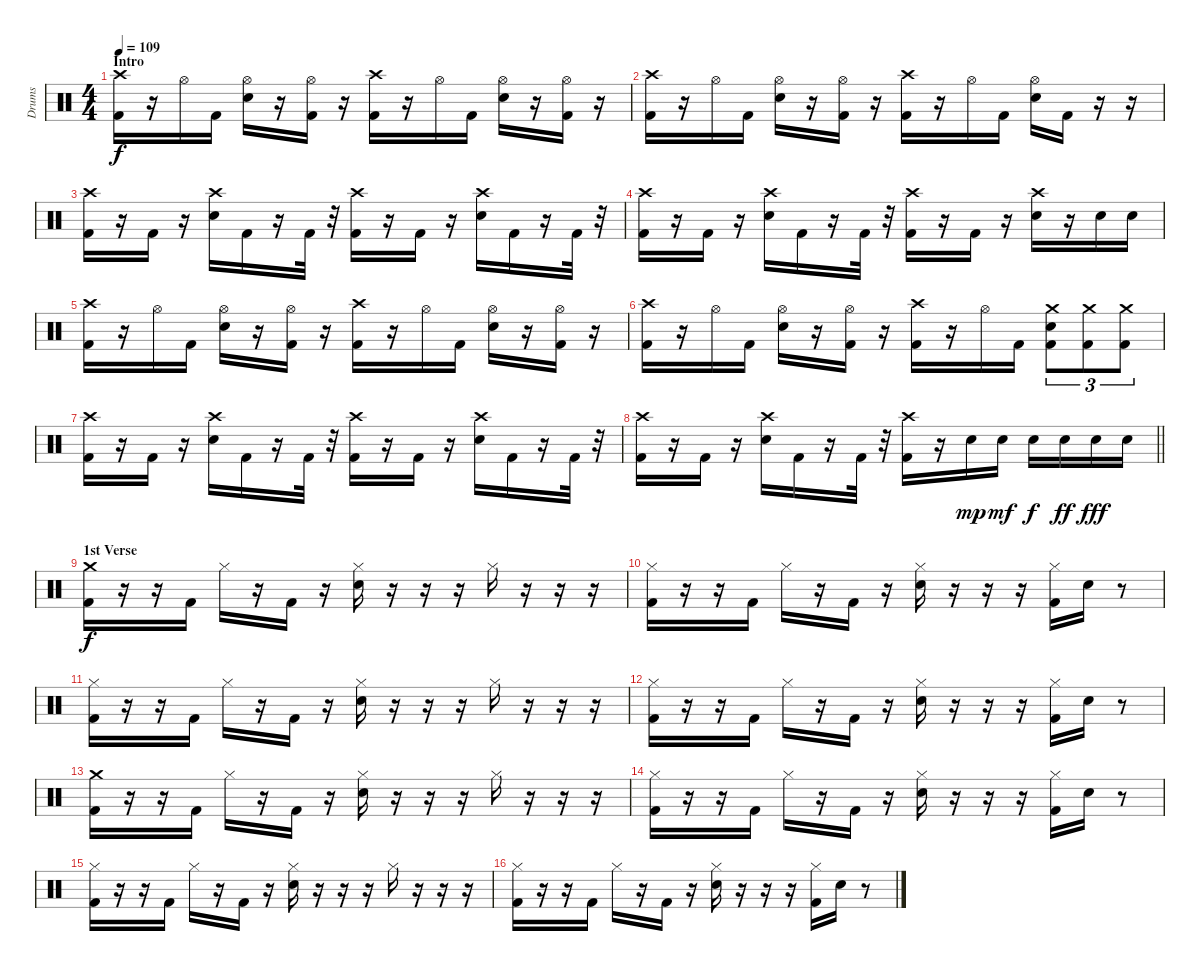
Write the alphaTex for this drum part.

\track ("Drums" "Drums") {instrument percussion}
\staff {score}
\articulation defaults
\ts (4 4)
\section ("" "Intro")
\tempo 109
\clef neutral
\ks c
("Crash high (hit)" "Kick (hit) 2").16{dy f} r.16 "Hi-Hat (open)".16 "Kick (hit) 2".16 ("Hi-Hat (open)" "Snare (hit) 2").16 r.16 ("Hi-Hat (open)" "Kick (hit) 2").16 r.16 ("Crash high (hit)" "Kick (hit) 2").16 r.16 "Hi-Hat (open)".16 "Kick (hit) 2".16 ("Hi-Hat (open)" "Snare (hit) 2").16 r.16 ("Hi-Hat (open)" "Kick (hit) 2").16 r.16 |
("Crash high (hit)" "Kick (hit) 2").16 r.16 "Hi-Hat (open)".16 "Kick (hit) 2".16 ("Hi-Hat (open)" "Snare (hit) 2").16 r.16 ("Hi-Hat (open)" "Kick (hit) 2").16 r.16 ("Crash high (hit)" "Kick (hit) 2").16 r.16 "Hi-Hat (open)".16 "Kick (hit) 2".16 ("Hi-Hat (open)" "Snare (hit) 2").16 "Kick (hit) 2".16 r.16 r.16 |
("Crash high (hit)" "Kick (hit) 2").16 r.16 "Kick (hit) 2".16 r.16 ("Crash high (hit)" "Snare (hit) 2").16 "Kick (hit) 2".16 r.16 "Kick (hit) 2".32 r.32 ("Crash high (hit)" "Kick (hit) 2").16 r.16 "Kick (hit) 2".16 r.16 ("Crash high (hit)" "Snare (hit) 2").16 "Kick (hit) 2".16 r.16 "Kick (hit) 2".32 r.32 |
("Crash high (hit)" "Kick (hit) 2").16 r.16 "Kick (hit) 2".16 r.16 ("Crash high (hit)" "Snare (hit) 2").16 "Kick (hit) 2".16 r.16 "Kick (hit) 2".32 r.32 ("Crash high (hit)" "Kick (hit) 2").16 r.16 "Kick (hit) 2".16 r.16 ("Crash high (hit)" "Snare (hit) 2").16 r.16 "Snare (hit) 2".16 "Snare (hit) 2".16 |
("Crash high (hit)" "Kick (hit) 2").16 r.16 "Hi-Hat (open)".16 "Kick (hit) 2".16 ("Hi-Hat (open)" "Snare (hit) 2").16 r.16 ("Hi-Hat (open)" "Kick (hit) 2").16 r.16 ("Crash high (hit)" "Kick (hit) 2").16 r.16 "Hi-Hat (open)".16 "Kick (hit) 2".16 ("Hi-Hat (open)" "Snare (hit) 2").16 r.16 ("Hi-Hat (open)" "Kick (hit) 2").16 r.16 |
("Crash high (hit)" "Kick (hit) 2").16 r.16 "Hi-Hat (open)".16 "Kick (hit) 2".16 ("Hi-Hat (open)" "Snare (hit) 2").16 r.16 ("Hi-Hat (open)" "Kick (hit) 2").16 r.16 ("Crash high (hit)" "Kick (hit) 2").16 r.16 "Hi-Hat (open)".16 "Kick (hit) 2".16 ("Crash medium (hit)" "Snare (hit) 2" "Kick (hit) 2").8{tu (3 2)} ("Crash medium (hit)" "Kick (hit) 2").8{tu (3 2)} ("Crash medium (hit)" "Kick (hit) 2").8{tu (3 2)} |
("Crash high (hit)" "Kick (hit) 2").16 r.16 "Kick (hit) 2".16 r.16 ("Crash high (hit)" "Snare (hit) 2").16 "Kick (hit) 2".16 r.16 "Kick (hit) 2".32 r.32 ("Crash high (hit)" "Kick (hit) 2").16 r.16 "Kick (hit) 2".16 r.16 ("Crash high (hit)" "Snare (hit) 2").16 "Kick (hit) 2".16 r.16 "Kick (hit) 2".32 r.32 |
\barLineRight lightlight
("Crash high (hit)" "Kick (hit) 2").16 r.16 "Kick (hit) 2".16 r.16 ("Crash high (hit)" "Snare (hit) 2").16 "Kick (hit) 2".16 r.16 "Kick (hit) 2".32 r.32 ("Crash high (hit)" "Kick (hit) 2").16 r.16 "Snare (hit) 2".16{dy mp} "Snare (hit) 2".16{dy mf} "Snare (hit) 2".16{dy f} "Snare (hit) 2".16{dy ff} "Snare (hit) 2".16{dy fff} "Snare (hit) 2".16 |
\section ("" "1st Verse")
("Crash medium (hit)" "Kick (hit) 2").16{dy f} r.16 r.16 "Kick (hit) 2".16 "Hi-Hat (closed)".16 r.16 "Kick (hit) 2".16 r.16 ("Hi-Hat (closed)" "Snare (hit) 2").16 r.16 r.16 r.16 "Hi-Hat (closed)".16 r.16 r.16 r.16 |
("Hi-Hat (closed)" "Kick (hit) 2").16 r.16 r.16 "Kick (hit) 2".16 "Hi-Hat (closed)".16 r.16 "Kick (hit) 2".16 r.16 ("Hi-Hat (closed)" "Snare (hit) 2").16 r.16 r.16 r.16 ("Hi-Hat (closed)" "Kick (hit) 2").16 "Snare (hit) 2"{tr (38 32)}.16 r.8 |
("Hi-Hat (closed)" "Kick (hit) 2").16 r.16 r.16 "Kick (hit) 2".16 "Hi-Hat (closed)".16 r.16 "Kick (hit) 2".16 r.16 ("Hi-Hat (closed)" "Snare (hit) 2").16 r.16 r.16 r.16 "Hi-Hat (closed)".16 r.16 r.16 r.16 |
("Hi-Hat (closed)" "Kick (hit) 2").16 r.16 r.16 "Kick (hit) 2".16 "Hi-Hat (closed)".16 r.16 "Kick (hit) 2".16 r.16 ("Hi-Hat (closed)" "Snare (hit) 2").16 r.16 r.16 r.16 ("Hi-Hat (closed)" "Kick (hit) 2").16 "Snare (hit) 2"{tr (38 32)}.16 r.8 |
("Crash medium (hit)" "Kick (hit) 2").16 r.16 r.16 "Kick (hit) 2".16 "Hi-Hat (closed)".16 r.16 "Kick (hit) 2".16 r.16 ("Hi-Hat (closed)" "Snare (hit) 2").16 r.16 r.16 r.16 "Hi-Hat (closed)".16 r.16 r.16 r.16 |
("Hi-Hat (closed)" "Kick (hit) 2").16 r.16 r.16 "Kick (hit) 2".16 "Hi-Hat (closed)".16 r.16 "Kick (hit) 2".16 r.16 ("Hi-Hat (closed)" "Snare (hit) 2").16 r.16 r.16 r.16 ("Hi-Hat (closed)" "Kick (hit) 2").16 "Snare (hit) 2"{tr (38 32)}.16 r.8 |
("Hi-Hat (closed)" "Kick (hit) 2").16 r.16 r.16 "Kick (hit) 2".16 "Hi-Hat (closed)".16 r.16 "Kick (hit) 2".16 r.16 ("Hi-Hat (closed)" "Snare (hit) 2").16 r.16 r.16 r.16 "Hi-Hat (closed)".16 r.16 r.16 r.16 |
("Hi-Hat (closed)" "Kick (hit) 2").16 r.16 r.16 "Kick (hit) 2".16 "Hi-Hat (closed)".16 r.16 "Kick (hit) 2".16 r.16 ("Hi-Hat (closed)" "Snare (hit) 2").16 r.16 r.16 r.16 ("Hi-Hat (closed)" "Kick (hit) 2").16 "Snare (hit) 2"{tr (38 32)}.16 r.8
